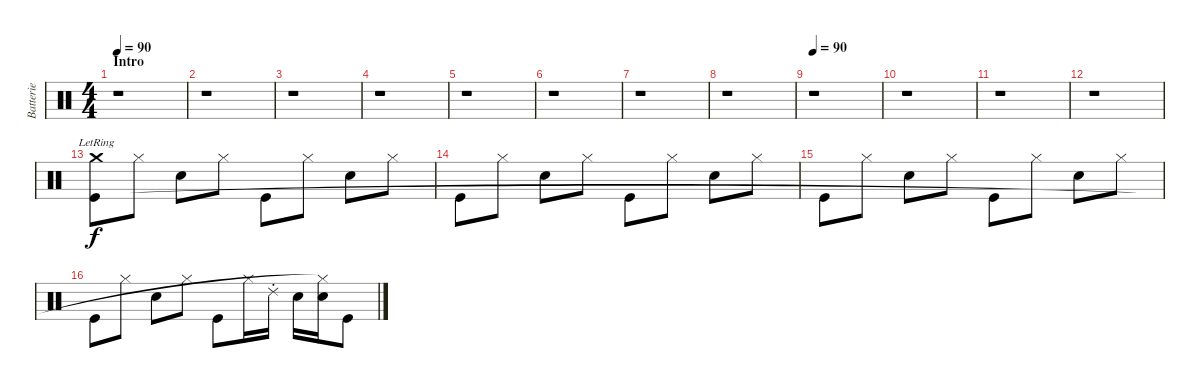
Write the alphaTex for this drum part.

\track ("Batterie" "Batterie") {instrument percussion}
\staff {score}
\articulation defaults
\ts (4 4)
\section ("" "Intro")
\tempo 90
\tempo 70
\tempo 90
\clef neutral
\ks c
r.1{dy f} |
r.1 |
r.1 |
r.1 |
r.1 |
r.1 |
r.1 |
r.1 |
\tempo 90
r.1 |
r.1 |
r.1 |
r.1 |
("Crash medium (hit)"{lr} "Kick (hit)").8 "Hi-Hat (closed)".8 "Electric Snare (hit)".8 "Hi-Hat (closed)".8 "Kick (hit)".8 "Hi-Hat (closed)".8 "Electric Snare (hit)".8 "Hi-Hat (closed)".8 |
"Kick (hit)".8 "Hi-Hat (closed)".8 "Electric Snare (hit)".8 "Hi-Hat (closed)".8 "Kick (hit)".8 "Hi-Hat (closed)".8 "Electric Snare (hit)".8 "Hi-Hat (closed)".8 |
"Kick (hit)".8 "Hi-Hat (closed)".8 "Electric Snare (hit)".8 "Hi-Hat (closed)".8 "Kick (hit)".8 "Hi-Hat (closed)".8 "Electric Snare (hit)".8 "Hi-Hat (closed)".8 |
"Kick (hit)".8 "Hi-Hat (closed)".8 "Electric Snare (hit)".8 "Hi-Hat (closed)".8 "Kick (hit)".8 "Hi-Hat (closed)".16 "Ride (choke) 2".16 "Electric Snare (hit)".16 ("Electric Snare (hit)" "Hi-Hat (closed)"{t}).16 "Kick (hit)".8
